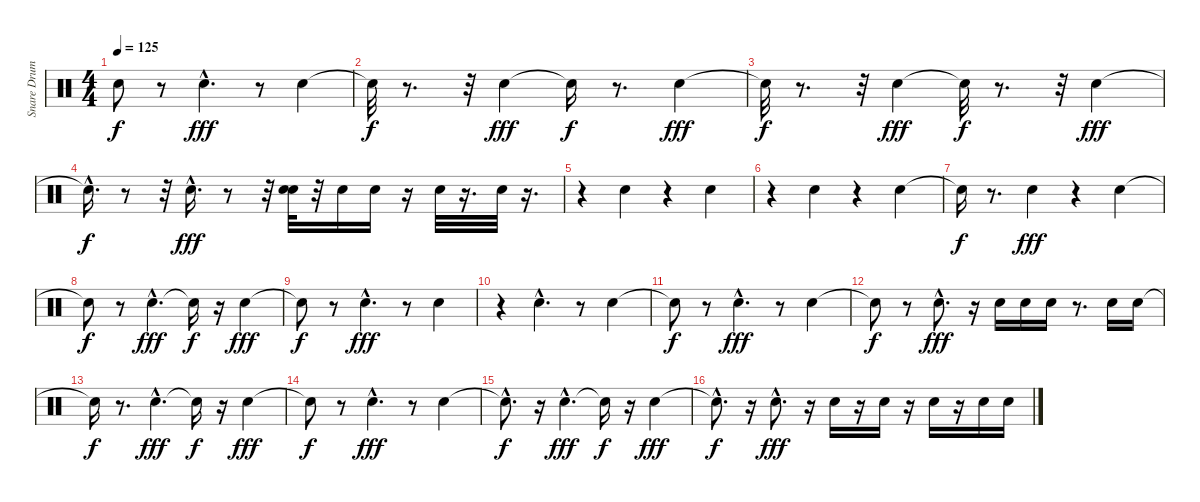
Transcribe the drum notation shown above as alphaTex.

\track ("Snare Drum      " "Snare Drum") {instrument percussion}
\staff {score}
\articulation defaults
\ts (4 4)
\tempo 125
\clef neutral
\ks c "Snare (hit)"{t}.8{dy f}
r.8 "Snare (hit) 2"{hac}.4{d dy fff} r.8 "Snare (hit) 2".4 |
"Snare (hit)"{t}.32{dy f} r.8{d} r.32 "Snare (hit) 2".4{dy fff} "Snare (hit)"{t}.16{dy f} r.8{d} "Snare (hit) 2".4{dy fff} |
"Snare (hit)"{t}.32{dy f} r.8{d} r.32 "Snare (hit) 2".4{dy fff} "Snare (hit)"{t}.32{dy f} r.8{d} r.32 "Snare (hit) 2".4{dy fff} |
"Snare (hit)"{hac t}.16{d dy f} r.8 r.32 "Snare (hit) 2"{hac}.16{d dy fff} r.8 r.32 ("Snare (hit) 2" "Snare (hit) 2").32 r.32 "Snare (hit) 2".16 "Snare (hit) 2".16 r.16 "Snare (hit) 2".32 r.16{d} "Snare (hit) 2".32 r.16{d} |
r.4 "Snare (hit) 2".4 r.4 "Snare (hit) 2".4 |
r.4 "Snare (hit) 2".4 r.4 "Snare (hit) 2".4 |
"Snare (hit)"{t}.16{dy f} r.8{d} "Snare (hit) 2".4{dy fff} r.4 "Snare (hit) 2".4 |
"Snare (hit)"{t}.8{dy f} r.8 "Snare (hit) 2"{hac}.4{d dy fff} "Snare (hit)"{t}.16{dy f} r.16 "Snare (hit) 2".4{dy fff} |
"Snare (hit)"{t}.8{dy f} r.8 "Snare (hit) 2"{hac}.4{d dy fff} r.8 "Snare (hit) 2".4 |
r.4 "Snare (hit) 2"{hac}.4{d} r.8 "Snare (hit) 2".4 |
"Snare (hit)"{t}.8{dy f} r.8 "Snare (hit) 2"{hac}.4{d dy fff} r.8 "Snare (hit) 2".4 |
"Snare (hit)"{t}.8{dy f} r.8 "Snare (hit) 2"{hac}.8{d dy fff} r.16 "Snare (hit) 2".16 "Snare (hit) 2".16 "Snare (hit) 2".16 r.8{d} "Snare (hit) 2".16 "Snare (hit) 2".16 |
"Snare (hit)"{t}.16{dy f} r.8{d} "Snare (hit) 2"{hac}.4{d dy fff} "Snare (hit)"{t}.16{dy f} r.16 "Snare (hit) 2".4{dy fff} |
"Snare (hit)"{t}.8{dy f} r.8 "Snare (hit) 2"{hac}.4{d dy fff} r.8 "Snare (hit) 2".4 |
"Snare (hit)"{hac t}.8{d dy f} r.16 "Snare (hit) 2"{hac}.4{d dy fff} "Snare (hit)"{t}.16{dy f} r.16 "Snare (hit) 2".4{dy fff} |
"Snare (hit)"{hac t}.8{d dy f} r.16 "Snare (hit) 2"{hac}.8{d dy fff} r.16 "Snare (hit) 2".16 r.16 "Snare (hit) 2".16 r.16 "Snare (hit) 2".16 r.16 "Snare (hit) 2".16 "Snare (hit) 2".16
